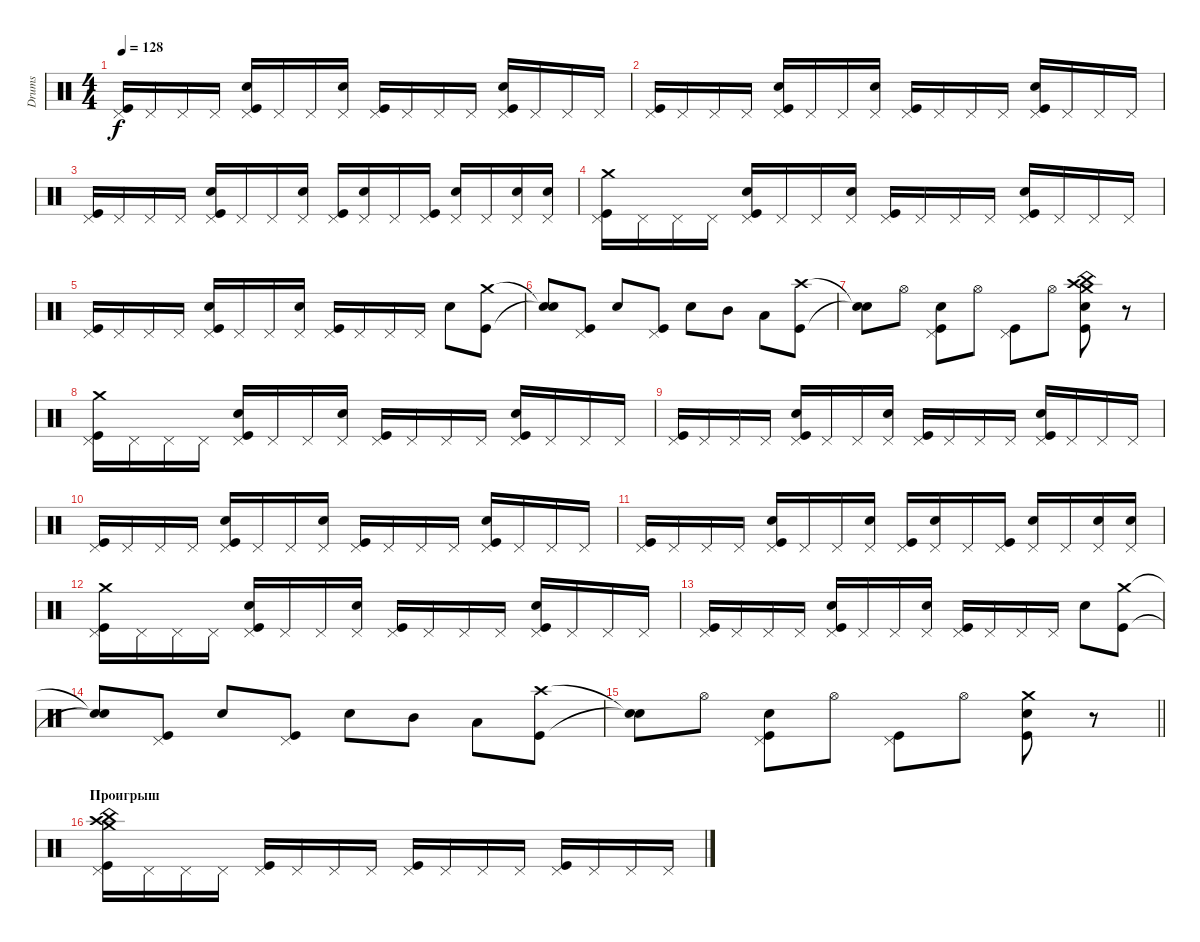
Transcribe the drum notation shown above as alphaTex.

\track ("Drums" "Drums") {instrument percussion}
\staff {score}
\articulation defaults
\ts (4 4)
\tempo 128
\clef neutral
\ks c
("Kick (hit)" "Pedal Hi-Hat (hit)").16{dy f} "Pedal Hi-Hat (hit)".16 "Pedal Hi-Hat (hit)".16 "Pedal Hi-Hat (hit)".16 ("Kick (hit)" "Pedal Hi-Hat (hit)" "Snare (hit) 2").16 "Pedal Hi-Hat (hit)".16 "Pedal Hi-Hat (hit)".16 ("Pedal Hi-Hat (hit)" "Snare (hit) 2").16 ("Kick (hit)" "Pedal Hi-Hat (hit)").16 "Pedal Hi-Hat (hit)".16 "Pedal Hi-Hat (hit)".16 "Pedal Hi-Hat (hit)".16 ("Kick (hit)" "Pedal Hi-Hat (hit)" "Snare (hit) 2").16 "Pedal Hi-Hat (hit)".16 "Pedal Hi-Hat (hit)".16 "Pedal Hi-Hat (hit)".16 |
("Kick (hit)" "Pedal Hi-Hat (hit)").16 "Pedal Hi-Hat (hit)".16 "Pedal Hi-Hat (hit)".16 "Pedal Hi-Hat (hit)".16 ("Kick (hit)" "Pedal Hi-Hat (hit)" "Snare (hit) 2").16 "Pedal Hi-Hat (hit)".16 "Pedal Hi-Hat (hit)".16 ("Pedal Hi-Hat (hit)" "Snare (hit) 2").16 ("Kick (hit)" "Pedal Hi-Hat (hit)").16 "Pedal Hi-Hat (hit)".16 "Pedal Hi-Hat (hit)".16 "Pedal Hi-Hat (hit)".16 ("Kick (hit)" "Pedal Hi-Hat (hit)" "Snare (hit) 2").16 "Pedal Hi-Hat (hit)".16 "Pedal Hi-Hat (hit)".16 "Pedal Hi-Hat (hit)".16 |
("Kick (hit)" "Pedal Hi-Hat (hit)").16 "Pedal Hi-Hat (hit)".16 "Pedal Hi-Hat (hit)".16 "Pedal Hi-Hat (hit)".16 ("Kick (hit)" "Pedal Hi-Hat (hit)" "Snare (hit) 2").16 "Pedal Hi-Hat (hit)".16 "Pedal Hi-Hat (hit)".16 ("Pedal Hi-Hat (hit)" "Snare (hit) 2").16 ("Kick (hit)" "Pedal Hi-Hat (hit)").16 ("Pedal Hi-Hat (hit)" "Snare (hit) 2").16 "Pedal Hi-Hat (hit)".16 ("Kick (hit)" "Pedal Hi-Hat (hit)").16 ("Pedal Hi-Hat (hit)" "Snare (hit) 2").16 "Pedal Hi-Hat (hit)".16 ("Pedal Hi-Hat (hit)" "Snare (hit) 2").16 ("Pedal Hi-Hat (hit)" "Snare (hit) 2").16 |
("Kick (hit)" "Pedal Hi-Hat (hit)" "Crash medium (hit)").16 "Pedal Hi-Hat (hit)".16 "Pedal Hi-Hat (hit)".16 "Pedal Hi-Hat (hit)".16 ("Kick (hit)" "Pedal Hi-Hat (hit)" "Snare (hit) 2").16 "Pedal Hi-Hat (hit)".16 "Pedal Hi-Hat (hit)".16 ("Pedal Hi-Hat (hit)" "Snare (hit) 2").16 ("Kick (hit)" "Pedal Hi-Hat (hit)").16 "Pedal Hi-Hat (hit)".16 "Pedal Hi-Hat (hit)".16 "Pedal Hi-Hat (hit)".16 ("Kick (hit)" "Pedal Hi-Hat (hit)" "Snare (hit) 2").16 "Pedal Hi-Hat (hit)".16 "Pedal Hi-Hat (hit)".16 "Pedal Hi-Hat (hit)".16 |
("Kick (hit)" "Pedal Hi-Hat (hit)").16 "Pedal Hi-Hat (hit)".16 "Pedal Hi-Hat (hit)".16 "Pedal Hi-Hat (hit)".16 ("Kick (hit)" "Pedal Hi-Hat (hit)" "Snare (hit) 2").16 "Pedal Hi-Hat (hit)".16 "Pedal Hi-Hat (hit)".16 ("Pedal Hi-Hat (hit)" "Snare (hit) 2").16 ("Kick (hit)" "Pedal Hi-Hat (hit)").16 "Pedal Hi-Hat (hit)".16 "Pedal Hi-Hat (hit)".16 "Pedal Hi-Hat (hit)".16 "Snare (hit) 2".8 ("Kick (hit)" "Crash medium (hit)").8 |
("Snare (hit)"{t} "Snare (hit)"{t}).8 ("Kick (hit)" "Pedal Hi-Hat (hit)").8 "Snare (hit) 2".8 ("Kick (hit)" "Pedal Hi-Hat (hit)").8 "Snare (hit) 2".8 "Mid Tom (hit)".8 "Low Tom (hit)".8 ("Kick (hit)" "Crash high (hit)").8 |
("Snare (hit)"{t} "Snare (hit)"{t}).8 "Hi-Hat (open)".8 ("Kick (hit)" "Pedal Hi-Hat (hit)" "Snare (hit) 2").8 "Hi-Hat (open)".8 ("Kick (hit)" "Pedal Hi-Hat (hit)").8 "Hi-Hat (open)".8 ("Kick (hit)" "Crash high (hit)" "Snare (hit) 2" "Crash medium (hit)" "China (hit)").8 r.8 |
("Kick (hit)" "Pedal Hi-Hat (hit)" "Crash medium (hit)").16 "Pedal Hi-Hat (hit)".16 "Pedal Hi-Hat (hit)".16 "Pedal Hi-Hat (hit)".16 ("Kick (hit)" "Pedal Hi-Hat (hit)" "Snare (hit) 2").16 "Pedal Hi-Hat (hit)".16 "Pedal Hi-Hat (hit)".16 ("Pedal Hi-Hat (hit)" "Snare (hit) 2").16 ("Kick (hit)" "Pedal Hi-Hat (hit)").16 "Pedal Hi-Hat (hit)".16 "Pedal Hi-Hat (hit)".16 "Pedal Hi-Hat (hit)".16 ("Kick (hit)" "Pedal Hi-Hat (hit)" "Snare (hit) 2").16 "Pedal Hi-Hat (hit)".16 "Pedal Hi-Hat (hit)".16 "Pedal Hi-Hat (hit)".16 |
("Kick (hit)" "Pedal Hi-Hat (hit)").16 "Pedal Hi-Hat (hit)".16 "Pedal Hi-Hat (hit)".16 "Pedal Hi-Hat (hit)".16 ("Kick (hit)" "Pedal Hi-Hat (hit)" "Snare (hit) 2").16 "Pedal Hi-Hat (hit)".16 "Pedal Hi-Hat (hit)".16 ("Pedal Hi-Hat (hit)" "Snare (hit) 2").16 ("Kick (hit)" "Pedal Hi-Hat (hit)").16 "Pedal Hi-Hat (hit)".16 "Pedal Hi-Hat (hit)".16 "Pedal Hi-Hat (hit)".16 ("Kick (hit)" "Pedal Hi-Hat (hit)" "Snare (hit) 2").16 "Pedal Hi-Hat (hit)".16 "Pedal Hi-Hat (hit)".16 "Pedal Hi-Hat (hit)".16 |
("Kick (hit)" "Pedal Hi-Hat (hit)").16 "Pedal Hi-Hat (hit)".16 "Pedal Hi-Hat (hit)".16 "Pedal Hi-Hat (hit)".16 ("Kick (hit)" "Pedal Hi-Hat (hit)" "Snare (hit) 2").16 "Pedal Hi-Hat (hit)".16 "Pedal Hi-Hat (hit)".16 ("Pedal Hi-Hat (hit)" "Snare (hit) 2").16 ("Kick (hit)" "Pedal Hi-Hat (hit)").16 "Pedal Hi-Hat (hit)".16 "Pedal Hi-Hat (hit)".16 "Pedal Hi-Hat (hit)".16 ("Kick (hit)" "Pedal Hi-Hat (hit)" "Snare (hit) 2").16 "Pedal Hi-Hat (hit)".16 "Pedal Hi-Hat (hit)".16 "Pedal Hi-Hat (hit)".16 |
("Kick (hit)" "Pedal Hi-Hat (hit)").16 "Pedal Hi-Hat (hit)".16 "Pedal Hi-Hat (hit)".16 "Pedal Hi-Hat (hit)".16 ("Kick (hit)" "Pedal Hi-Hat (hit)" "Snare (hit) 2").16 "Pedal Hi-Hat (hit)".16 "Pedal Hi-Hat (hit)".16 ("Pedal Hi-Hat (hit)" "Snare (hit) 2").16 ("Kick (hit)" "Pedal Hi-Hat (hit)").16 ("Pedal Hi-Hat (hit)" "Snare (hit) 2").16 "Pedal Hi-Hat (hit)".16 ("Kick (hit)" "Pedal Hi-Hat (hit)").16 ("Pedal Hi-Hat (hit)" "Snare (hit) 2").16 "Pedal Hi-Hat (hit)".16 ("Pedal Hi-Hat (hit)" "Snare (hit) 2").16 ("Pedal Hi-Hat (hit)" "Snare (hit) 2").16 |
("Kick (hit)" "Pedal Hi-Hat (hit)" "Crash medium (hit)").16 "Pedal Hi-Hat (hit)".16 "Pedal Hi-Hat (hit)".16 "Pedal Hi-Hat (hit)".16 ("Kick (hit)" "Pedal Hi-Hat (hit)" "Snare (hit) 2").16 "Pedal Hi-Hat (hit)".16 "Pedal Hi-Hat (hit)".16 ("Pedal Hi-Hat (hit)" "Snare (hit) 2").16 ("Kick (hit)" "Pedal Hi-Hat (hit)").16 "Pedal Hi-Hat (hit)".16 "Pedal Hi-Hat (hit)".16 "Pedal Hi-Hat (hit)".16 ("Kick (hit)" "Pedal Hi-Hat (hit)" "Snare (hit) 2").16 "Pedal Hi-Hat (hit)".16 "Pedal Hi-Hat (hit)".16 "Pedal Hi-Hat (hit)".16 |
("Kick (hit)" "Pedal Hi-Hat (hit)").16 "Pedal Hi-Hat (hit)".16 "Pedal Hi-Hat (hit)".16 "Pedal Hi-Hat (hit)".16 ("Kick (hit)" "Pedal Hi-Hat (hit)" "Snare (hit) 2").16 "Pedal Hi-Hat (hit)".16 "Pedal Hi-Hat (hit)".16 ("Pedal Hi-Hat (hit)" "Snare (hit) 2").16 ("Kick (hit)" "Pedal Hi-Hat (hit)").16 "Pedal Hi-Hat (hit)".16 "Pedal Hi-Hat (hit)".16 "Pedal Hi-Hat (hit)".16 "Snare (hit) 2".8 ("Kick (hit)" "Crash medium (hit)").8 |
("Snare (hit)"{t} "Snare (hit)"{t}).8 ("Kick (hit)" "Pedal Hi-Hat (hit)").8 "Snare (hit) 2".8 ("Kick (hit)" "Pedal Hi-Hat (hit)").8 "Snare (hit) 2".8 "Mid Tom (hit)".8 "Low Tom (hit)".8 ("Kick (hit)" "Crash high (hit)").8 |
\barLineRight lightlight
("Snare (hit)"{t} "Snare (hit)"{t}).8 "Hi-Hat (open)".8 ("Kick (hit)" "Pedal Hi-Hat (hit)" "Snare (hit) 2").8 "Hi-Hat (open)".8 ("Kick (hit)" "Pedal Hi-Hat (hit)").8 "Hi-Hat (open)".8 ("Kick (hit)" "Snare (hit) 2" "Crash medium (hit)").8 r.8 |
\section ("" "Проигрыш")
("Kick (hit)" "Pedal Hi-Hat (hit)" "Crash medium (hit)" "China (hit)" "Crash high (hit)").16 "Pedal Hi-Hat (hit)".16 "Pedal Hi-Hat (hit)".16 "Pedal Hi-Hat (hit)".16 ("Kick (hit)" "Pedal Hi-Hat (hit)").16 "Pedal Hi-Hat (hit)".16 "Pedal Hi-Hat (hit)".16 "Pedal Hi-Hat (hit)".16 ("Kick (hit)" "Pedal Hi-Hat (hit)").16 "Pedal Hi-Hat (hit)".16 "Pedal Hi-Hat (hit)".16 "Pedal Hi-Hat (hit)".16 ("Kick (hit)" "Pedal Hi-Hat (hit)").16 "Pedal Hi-Hat (hit)".16 "Pedal Hi-Hat (hit)".16 "Pedal Hi-Hat (hit)".16
